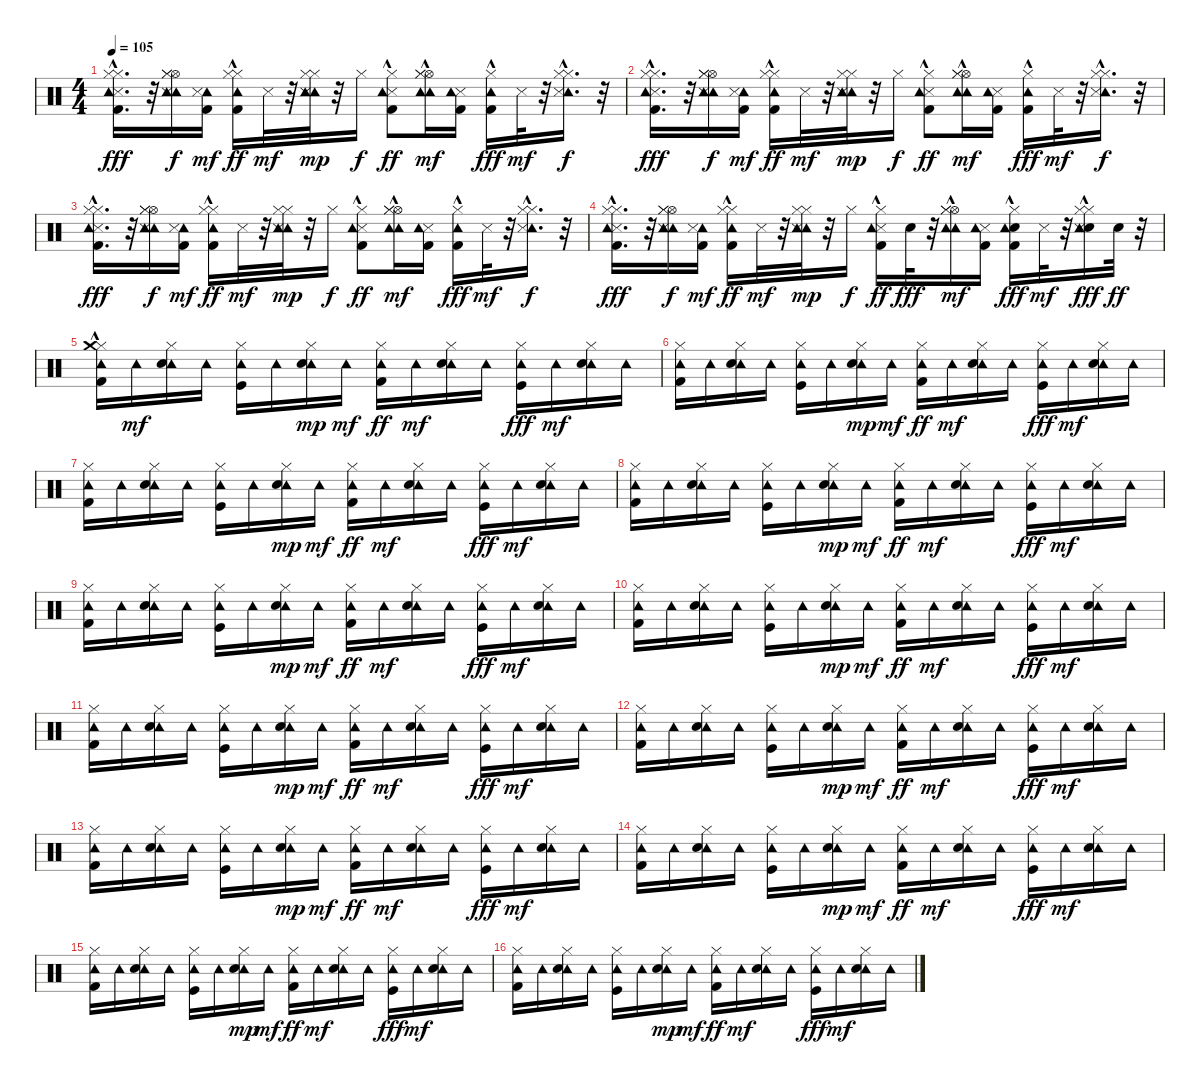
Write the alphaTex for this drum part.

\track "" {instrument percussion}
\staff {score}
\articulation defaults
\ts (4 4)
\tempo 105
\clef neutral
\ks c
("Snare (side stick) 3"{hac} "Hi-Hat (closed)"{hac} "Kick (hit) 2"{hac} "Hi-Hat (closed)"{hac} "Tambourine (hit)").16{d dy fff} r.32 ("Hi-Hat (open)" "Hi-Hat (closed)" "Tambourine (hit)" "Hi-Hat (closed)" "Snare (side stick) 3" "Tambourine (hit)").16{dy f} ("Tambourine (hit)" "Snare (side stick) 3" "Kick (hit) 2").16{dy mf} ("Tambourine (hit)" "Hi-Hat (closed)" "Kick (hit) 2"{hac} "Hi-Hat (closed)").16{dy ff} "Snare (side stick) 3".32{dy mf} r.32 ("Tambourine (hit)" "Snare (side stick) 3" "Hi-Hat (closed)" "Tambourine (hit)" "Hi-Hat (closed)").32{dy mp} r.32 "Hi-Hat (closed)".16{dy f} ("Snare (side stick) 3" "Hi-Hat (closed)"{hac} "Kick (hit) 2" "Tambourine (hit)").8{dy ff} ("Tambourine (hit)" "Hi-Hat (open)"{hac} "Hi-Hat (closed)" "Hi-Hat (closed)" "Tambourine (hit)").16{dy mf} ("Snare (side stick) 3" "Tambourine (hit)" "Kick (hit) 2").16 ("Tambourine (hit)" "Kick (hit) 2"{hac} "Hi-Hat (closed)").16{dy fff} "Snare (side stick) 3".32{dy mf} r.32 ("Hi-Hat (closed)"{hac} "Tambourine (hit)" "Hi-Hat (closed)"{hac} "Snare (side stick) 3").16{d dy f} r.32 |
("Snare (side stick) 3"{hac} "Hi-Hat (closed)"{hac} "Kick (hit) 2"{hac} "Hi-Hat (closed)"{hac} "Tambourine (hit)").16{d dy fff} r.32 ("Hi-Hat (open)" "Hi-Hat (closed)" "Tambourine (hit)" "Hi-Hat (closed)" "Snare (side stick) 3" "Tambourine (hit)").16{dy f} ("Tambourine (hit)" "Snare (side stick) 3" "Kick (hit) 2").16{dy mf} ("Tambourine (hit)" "Hi-Hat (closed)" "Kick (hit) 2"{hac} "Hi-Hat (closed)").16{dy ff} "Snare (side stick) 3".32{dy mf} r.32 ("Tambourine (hit)" "Snare (side stick) 3" "Hi-Hat (closed)" "Tambourine (hit)" "Hi-Hat (closed)").32{dy mp} r.32 "Hi-Hat (closed)".16{dy f} ("Snare (side stick) 3" "Hi-Hat (closed)"{hac} "Kick (hit) 2" "Tambourine (hit)").8{dy ff} ("Tambourine (hit)" "Hi-Hat (open)"{hac} "Hi-Hat (closed)" "Hi-Hat (closed)" "Tambourine (hit)").16{dy mf} ("Snare (side stick) 3" "Tambourine (hit)" "Kick (hit) 2").16 ("Tambourine (hit)" "Kick (hit) 2"{hac} "Hi-Hat (closed)").16{dy fff} "Snare (side stick) 3".32{dy mf} r.32 ("Hi-Hat (closed)"{hac} "Tambourine (hit)" "Hi-Hat (closed)"{hac} "Snare (side stick) 3").16{d dy f} r.32 |
("Snare (side stick) 3"{hac} "Hi-Hat (closed)"{hac} "Kick (hit) 2"{hac} "Hi-Hat (closed)"{hac} "Tambourine (hit)").16{d dy fff} r.32 ("Hi-Hat (open)" "Hi-Hat (closed)" "Tambourine (hit)" "Hi-Hat (closed)" "Snare (side stick) 3" "Tambourine (hit)").16{dy f} ("Tambourine (hit)" "Snare (side stick) 3" "Kick (hit) 2").16{dy mf} ("Tambourine (hit)" "Hi-Hat (closed)" "Kick (hit) 2"{hac} "Hi-Hat (closed)").16{dy ff} "Snare (side stick) 3".32{dy mf} r.32 ("Tambourine (hit)" "Snare (side stick) 3" "Hi-Hat (closed)" "Tambourine (hit)" "Hi-Hat (closed)").32{dy mp} r.32 "Hi-Hat (closed)".16{dy f} ("Snare (side stick) 3" "Hi-Hat (closed)"{hac} "Kick (hit) 2" "Tambourine (hit)").8{dy ff} ("Tambourine (hit)" "Hi-Hat (open)"{hac} "Hi-Hat (closed)" "Hi-Hat (closed)" "Tambourine (hit)").16{dy mf} ("Snare (side stick) 3" "Tambourine (hit)" "Kick (hit) 2").16 ("Tambourine (hit)" "Kick (hit) 2"{hac} "Hi-Hat (closed)").16{dy fff} "Snare (side stick) 3".32{dy mf} r.32 ("Hi-Hat (closed)"{hac} "Tambourine (hit)" "Hi-Hat (closed)"{hac} "Snare (side stick) 3").16{d dy f} r.32 |
("Snare (side stick) 3"{hac} "Hi-Hat (closed)"{hac} "Kick (hit) 2"{hac} "Hi-Hat (closed)"{hac} "Tambourine (hit)").16{d dy fff} r.32 ("Hi-Hat (open)" "Hi-Hat (closed)" "Tambourine (hit)" "Hi-Hat (closed)" "Snare (side stick) 3" "Tambourine (hit)").16{dy f} ("Tambourine (hit)" "Snare (side stick) 3" "Kick (hit) 2").16{dy mf} ("Tambourine (hit)" "Hi-Hat (closed)" "Kick (hit) 2"{hac} "Hi-Hat (closed)").16{dy ff} "Snare (side stick) 3".32{dy mf} r.32 ("Tambourine (hit)" "Snare (side stick) 3" "Hi-Hat (closed)" "Tambourine (hit)" "Hi-Hat (closed)").32{dy mp} r.32 "Hi-Hat (closed)".16{dy f} ("Snare (side stick) 3" "Hi-Hat (closed)"{hac} "Kick (hit) 2" "Tambourine (hit)").16{dy ff} "Snare (hit) 2".32{dy fff} r.32 ("Tambourine (hit)" "Hi-Hat (open)"{hac} "Hi-Hat (closed)" "Hi-Hat (closed)" "Tambourine (hit)").16{dy mf} ("Snare (side stick) 3" "Tambourine (hit)" "Kick (hit) 2").16 ("Snare (hit) 2" "Tambourine (hit)" "Kick (hit) 2"{hac} "Hi-Hat (closed)").16{dy fff} "Snare (side stick) 3".32{dy mf} r.32 ("Snare (hit) 2" "Hi-Hat (closed)"{hac} "Tambourine (hit)" "Hi-Hat (closed)"{hac} "Snare (side stick) 3").16{dy fff} "Snare (hit) 2".32{dy ff} r.32 |
("Kick (hit) 2"{hac} "Hi-Hat (closed)" "Tambourine (hit)" "Crash medium (hit)").16 "Tambourine (hit)".16{dy mf} ("Tambourine (hit)" "Hi-Hat (closed)" "Snare (hit) 2").16 "Tambourine (hit)".16 ("Kick (hit)" "Hi-Hat (closed)" "Tambourine (hit)").16 "Tambourine (hit)".16 ("Tambourine (hit)" "Hi-Hat (closed)" "Snare (hit) 2").16{dy mp} "Tambourine (hit)".16{dy mf} ("Tambourine (hit)" "Hi-Hat (closed)" "Kick (hit) 2").16{dy ff} "Tambourine (hit)".16{dy mf} ("Tambourine (hit)" "Hi-Hat (closed)" "Snare (hit) 2").16 "Tambourine (hit)".16 ("Tambourine (hit)" "Kick (hit)" "Hi-Hat (closed)").16{dy fff} "Tambourine (hit)".16{dy mf} ("Hi-Hat (closed)" "Tambourine (hit)" "Snare (hit) 2").16 "Tambourine (hit)".16 |
("Kick (hit) 2" "Hi-Hat (closed)" "Tambourine (hit)").16 "Tambourine (hit)".16 ("Hi-Hat (closed)" "Tambourine (hit)" "Snare (hit) 2").16 "Tambourine (hit)".16 ("Kick (hit)" "Hi-Hat (closed)" "Tambourine (hit)").16 "Tambourine (hit)".16 ("Tambourine (hit)" "Hi-Hat (closed)" "Snare (hit) 2").16{dy mp} "Tambourine (hit)".16{dy mf} ("Tambourine (hit)" "Hi-Hat (closed)" "Kick (hit) 2").16{dy ff} "Tambourine (hit)".16{dy mf} ("Tambourine (hit)" "Hi-Hat (closed)" "Snare (hit) 2").16 "Tambourine (hit)".16 ("Tambourine (hit)" "Kick (hit)" "Hi-Hat (closed)").16{dy fff} "Tambourine (hit)".16{dy mf} ("Tambourine (hit)" "Hi-Hat (closed)" "Snare (hit) 2").16 "Tambourine (hit)".16 |
("Kick (hit) 2" "Hi-Hat (closed)" "Tambourine (hit)").16 "Tambourine (hit)".16 ("Hi-Hat (closed)" "Tambourine (hit)" "Snare (hit) 2").16 "Tambourine (hit)".16 ("Kick (hit)" "Hi-Hat (closed)" "Tambourine (hit)").16 "Tambourine (hit)".16 ("Tambourine (hit)" "Hi-Hat (closed)" "Snare (hit) 2").16{dy mp} "Tambourine (hit)".16{dy mf} ("Tambourine (hit)" "Hi-Hat (closed)" "Kick (hit) 2").16{dy ff} "Tambourine (hit)".16{dy mf} ("Tambourine (hit)" "Hi-Hat (closed)" "Snare (hit) 2").16 "Tambourine (hit)".16 ("Tambourine (hit)" "Kick (hit)" "Hi-Hat (closed)").16{dy fff} "Tambourine (hit)".16{dy mf} ("Tambourine (hit)" "Hi-Hat (closed)" "Snare (hit) 2").16 "Tambourine (hit)".16 |
("Kick (hit) 2" "Hi-Hat (closed)" "Tambourine (hit)").16 "Tambourine (hit)".16 ("Hi-Hat (closed)" "Tambourine (hit)" "Snare (hit) 2").16 "Tambourine (hit)".16 ("Kick (hit)" "Hi-Hat (closed)" "Tambourine (hit)").16 "Tambourine (hit)".16 ("Tambourine (hit)" "Hi-Hat (closed)" "Snare (hit) 2").16{dy mp} "Tambourine (hit)".16{dy mf} ("Tambourine (hit)" "Hi-Hat (closed)" "Kick (hit) 2").16{dy ff} "Tambourine (hit)".16{dy mf} ("Tambourine (hit)" "Hi-Hat (closed)" "Snare (hit) 2").16 "Tambourine (hit)".16 ("Tambourine (hit)" "Kick (hit)" "Hi-Hat (closed)").16{dy fff} "Tambourine (hit)".16{dy mf} ("Tambourine (hit)" "Hi-Hat (closed)" "Snare (hit) 2").16 "Tambourine (hit)".16 |
("Kick (hit) 2" "Hi-Hat (closed)" "Tambourine (hit)").16 "Tambourine (hit)".16 ("Hi-Hat (closed)" "Tambourine (hit)" "Snare (hit) 2").16 "Tambourine (hit)".16 ("Kick (hit)" "Hi-Hat (closed)" "Tambourine (hit)").16 "Tambourine (hit)".16 ("Tambourine (hit)" "Hi-Hat (closed)" "Snare (hit) 2").16{dy mp} "Tambourine (hit)".16{dy mf} ("Tambourine (hit)" "Hi-Hat (closed)" "Kick (hit) 2").16{dy ff} "Tambourine (hit)".16{dy mf} ("Tambourine (hit)" "Hi-Hat (closed)" "Snare (hit) 2").16 "Tambourine (hit)".16 ("Tambourine (hit)" "Kick (hit)" "Hi-Hat (closed)").16{dy fff} "Tambourine (hit)".16{dy mf} ("Tambourine (hit)" "Hi-Hat (closed)" "Snare (hit) 2").16 "Tambourine (hit)".16 |
("Kick (hit) 2" "Hi-Hat (closed)" "Tambourine (hit)").16 "Tambourine (hit)".16 ("Hi-Hat (closed)" "Tambourine (hit)" "Snare (hit) 2").16 "Tambourine (hit)".16 ("Kick (hit)" "Hi-Hat (closed)" "Tambourine (hit)").16 "Tambourine (hit)".16 ("Tambourine (hit)" "Hi-Hat (closed)" "Snare (hit) 2").16{dy mp} "Tambourine (hit)".16{dy mf} ("Tambourine (hit)" "Hi-Hat (closed)" "Kick (hit) 2").16{dy ff} "Tambourine (hit)".16{dy mf} ("Tambourine (hit)" "Hi-Hat (closed)" "Snare (hit) 2").16 "Tambourine (hit)".16 ("Tambourine (hit)" "Kick (hit)" "Hi-Hat (closed)").16{dy fff} "Tambourine (hit)".16{dy mf} ("Tambourine (hit)" "Hi-Hat (closed)" "Snare (hit) 2").16 "Tambourine (hit)".16 |
("Kick (hit) 2" "Hi-Hat (closed)" "Tambourine (hit)").16 "Tambourine (hit)".16 ("Hi-Hat (closed)" "Tambourine (hit)" "Snare (hit) 2").16 "Tambourine (hit)".16 ("Kick (hit)" "Hi-Hat (closed)" "Tambourine (hit)").16 "Tambourine (hit)".16 ("Tambourine (hit)" "Hi-Hat (closed)" "Snare (hit) 2").16{dy mp} "Tambourine (hit)".16{dy mf} ("Tambourine (hit)" "Hi-Hat (closed)" "Kick (hit) 2").16{dy ff} "Tambourine (hit)".16{dy mf} ("Tambourine (hit)" "Hi-Hat (closed)" "Snare (hit) 2").16 "Tambourine (hit)".16 ("Tambourine (hit)" "Kick (hit)" "Hi-Hat (closed)").16{dy fff} "Tambourine (hit)".16{dy mf} ("Tambourine (hit)" "Hi-Hat (closed)" "Snare (hit) 2").16 "Tambourine (hit)".16 |
("Kick (hit) 2" "Hi-Hat (closed)" "Tambourine (hit)").16 "Tambourine (hit)".16 ("Hi-Hat (closed)" "Tambourine (hit)" "Snare (hit) 2").16 "Tambourine (hit)".16 ("Kick (hit)" "Hi-Hat (closed)" "Tambourine (hit)").16 "Tambourine (hit)".16 ("Tambourine (hit)" "Hi-Hat (closed)" "Snare (hit) 2").16{dy mp} "Tambourine (hit)".16{dy mf} ("Tambourine (hit)" "Hi-Hat (closed)" "Kick (hit) 2").16{dy ff} "Tambourine (hit)".16{dy mf} ("Tambourine (hit)" "Hi-Hat (closed)" "Snare (hit) 2").16 "Tambourine (hit)".16 ("Tambourine (hit)" "Kick (hit)" "Hi-Hat (closed)").16{dy fff} "Tambourine (hit)".16{dy mf} ("Tambourine (hit)" "Hi-Hat (closed)" "Snare (hit) 2").16 "Tambourine (hit)".16 |
("Kick (hit) 2" "Hi-Hat (closed)" "Tambourine (hit)").16 "Tambourine (hit)".16 ("Hi-Hat (closed)" "Tambourine (hit)" "Snare (hit) 2").16 "Tambourine (hit)".16 ("Kick (hit)" "Hi-Hat (closed)" "Tambourine (hit)").16 "Tambourine (hit)".16 ("Tambourine (hit)" "Hi-Hat (closed)" "Snare (hit) 2").16{dy mp} "Tambourine (hit)".16{dy mf} ("Tambourine (hit)" "Hi-Hat (closed)" "Kick (hit) 2").16{dy ff} "Tambourine (hit)".16{dy mf} ("Tambourine (hit)" "Hi-Hat (closed)" "Snare (hit) 2").16 "Tambourine (hit)".16 ("Tambourine (hit)" "Kick (hit)" "Hi-Hat (closed)").16{dy fff} "Tambourine (hit)".16{dy mf} ("Tambourine (hit)" "Hi-Hat (closed)" "Snare (hit) 2").16 "Tambourine (hit)".16 |
("Kick (hit) 2" "Hi-Hat (closed)" "Tambourine (hit)").16 "Tambourine (hit)".16 ("Hi-Hat (closed)" "Tambourine (hit)" "Snare (hit) 2").16 "Tambourine (hit)".16 ("Kick (hit)" "Hi-Hat (closed)" "Tambourine (hit)").16 "Tambourine (hit)".16 ("Tambourine (hit)" "Hi-Hat (closed)" "Snare (hit) 2").16{dy mp} "Tambourine (hit)".16{dy mf} ("Tambourine (hit)" "Hi-Hat (closed)" "Kick (hit) 2").16{dy ff} "Tambourine (hit)".16{dy mf} ("Tambourine (hit)" "Hi-Hat (closed)" "Snare (hit) 2").16 "Tambourine (hit)".16 ("Tambourine (hit)" "Kick (hit)" "Hi-Hat (closed)").16{dy fff} "Tambourine (hit)".16{dy mf} ("Tambourine (hit)" "Hi-Hat (closed)" "Snare (hit) 2").16 "Tambourine (hit)".16 |
("Kick (hit) 2" "Hi-Hat (closed)" "Tambourine (hit)").16 "Tambourine (hit)".16 ("Hi-Hat (closed)" "Tambourine (hit)" "Snare (hit) 2").16 "Tambourine (hit)".16 ("Kick (hit)" "Hi-Hat (closed)" "Tambourine (hit)").16 "Tambourine (hit)".16 ("Tambourine (hit)" "Hi-Hat (closed)" "Snare (hit) 2").16{dy mp} "Tambourine (hit)".16{dy mf} ("Tambourine (hit)" "Hi-Hat (closed)" "Kick (hit) 2").16{dy ff} "Tambourine (hit)".16{dy mf} ("Tambourine (hit)" "Hi-Hat (closed)" "Snare (hit) 2").16 "Tambourine (hit)".16 ("Tambourine (hit)" "Kick (hit)" "Hi-Hat (closed)").16{dy fff} "Tambourine (hit)".16{dy mf} ("Tambourine (hit)" "Hi-Hat (closed)" "Snare (hit) 2").16 "Tambourine (hit)".16 |
("Kick (hit) 2" "Hi-Hat (closed)" "Tambourine (hit)").16 "Tambourine (hit)".16 ("Hi-Hat (closed)" "Tambourine (hit)" "Snare (hit) 2").16 "Tambourine (hit)".16 ("Kick (hit)" "Hi-Hat (closed)" "Tambourine (hit)").16 "Tambourine (hit)".16 ("Tambourine (hit)" "Hi-Hat (closed)" "Snare (hit) 2").16{dy mp} "Tambourine (hit)".16{dy mf} ("Tambourine (hit)" "Hi-Hat (closed)" "Kick (hit) 2").16{dy ff} "Tambourine (hit)".16{dy mf} ("Tambourine (hit)" "Hi-Hat (closed)" "Snare (hit) 2").16 "Tambourine (hit)".16 ("Tambourine (hit)" "Kick (hit)" "Hi-Hat (closed)").16{dy fff} "Tambourine (hit)".16{dy mf} ("Tambourine (hit)" "Hi-Hat (closed)" "Snare (hit) 2").16 "Tambourine (hit)".16
